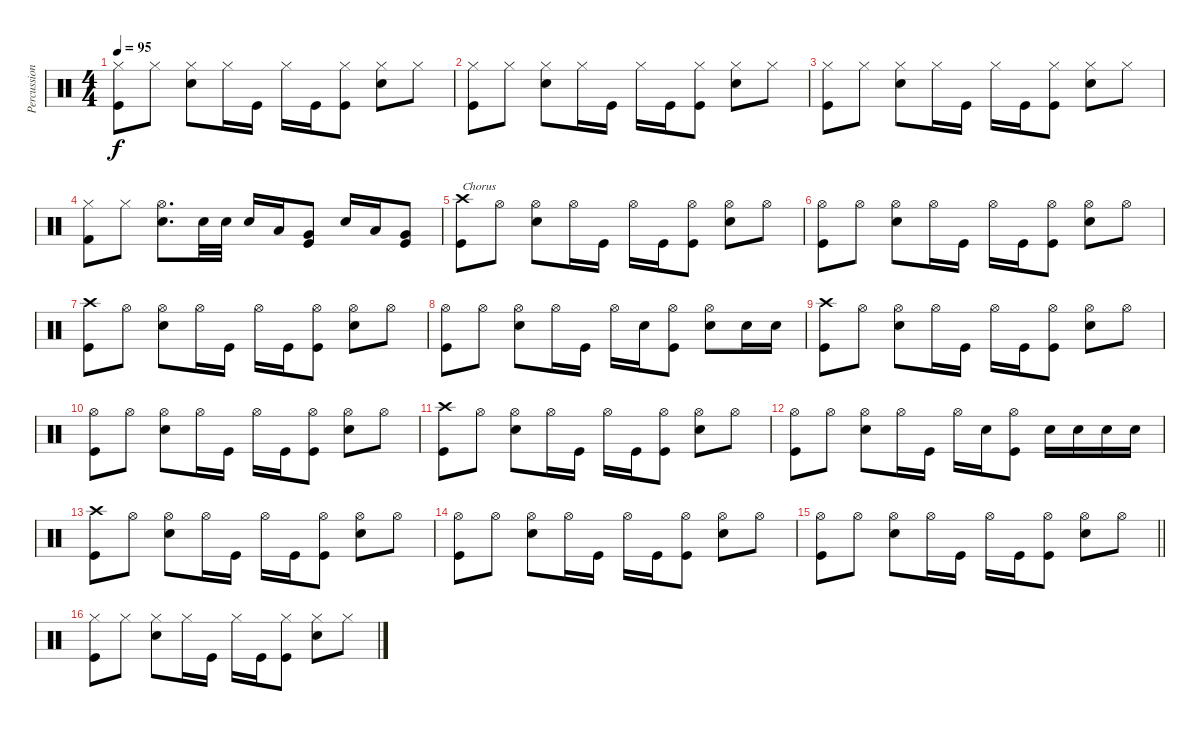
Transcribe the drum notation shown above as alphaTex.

\track ("Percussion" "Percussion") {instrument percussion}
\staff {score}
\articulation defaults
\ts (4 4)
\tempo 95
\clef neutral
\ks c
("Hi-Hat (closed)" "Kick (hit)").8{dy f} "Hi-Hat (closed)".8 ("Hi-Hat (closed)" "Snare (hit) 2").8 "Hi-Hat (closed)".16 "Kick (hit)".16 "Hi-Hat (closed)".16 "Kick (hit)".16 ("Hi-Hat (closed)" "Kick (hit)").8 ("Hi-Hat (closed)" "Snare (hit) 2").8 "Hi-Hat (closed)".8 |
("Hi-Hat (closed)" "Kick (hit)").8 "Hi-Hat (closed)".8 ("Hi-Hat (closed)" "Snare (hit) 2").8 "Hi-Hat (closed)".16 "Kick (hit)".16 "Hi-Hat (closed)".16 "Kick (hit)".16 ("Hi-Hat (closed)" "Kick (hit)").8 ("Hi-Hat (closed)" "Snare (hit) 2").8 "Hi-Hat (closed)".8 |
("Hi-Hat (closed)" "Kick (hit)").8 "Hi-Hat (closed)".8 ("Hi-Hat (closed)" "Snare (hit) 2").8 "Hi-Hat (closed)".16 "Kick (hit)".16 "Hi-Hat (closed)".16 "Kick (hit)".16 ("Hi-Hat (closed)" "Kick (hit)").8 ("Hi-Hat (closed)" "Snare (hit) 2").8 "Hi-Hat (closed)".8 |
("Hi-Hat (closed)" "Kick (hit) 2").8 "Hi-Hat (closed)".8 ("Hi-Hat (open)" "Electric Snare (hit)").8{d} "Electric Snare (hit)".32 "Electric Snare (hit)".32 "Electric Snare (hit)".16 "Low Tom (hit)".16 ("Very Low Tom (hit)" "Kick (hit)").8 "Electric Snare (hit)".16 "Low Tom (hit)".16 ("Very Low Tom (hit)" "Kick (hit)").8 |
("Crash high (hit)" "Kick (hit)").8{txt "Chorus"} "Hi-Hat (open)".8 ("Hi-Hat (open)" "Snare (hit) 2").8 "Hi-Hat (open)".16 "Kick (hit)".16 "Hi-Hat (open)".16 "Kick (hit)".16 ("Hi-Hat (open)" "Kick (hit)").8 ("Hi-Hat (open)" "Snare (hit) 2").8 "Hi-Hat (open)".8 |
("Hi-Hat (open)" "Kick (hit)").8 "Hi-Hat (open)".8 ("Hi-Hat (open)" "Snare (hit) 2").8 "Hi-Hat (open)".16 "Kick (hit)".16 "Hi-Hat (open)".16 "Kick (hit)".16 ("Hi-Hat (open)" "Kick (hit)").8 ("Hi-Hat (open)" "Snare (hit) 2").8 "Hi-Hat (open)".8 |
("Crash high (hit)" "Kick (hit)").8 "Hi-Hat (open)".8 ("Hi-Hat (open)" "Snare (hit) 2").8 "Hi-Hat (open)".16 "Kick (hit)".16 "Hi-Hat (open)".16 "Kick (hit)".16 ("Hi-Hat (open)" "Kick (hit)").8 ("Hi-Hat (open)" "Snare (hit) 2").8 "Hi-Hat (open)".8 |
("Hi-Hat (open)" "Kick (hit)").8 "Hi-Hat (open)".8 ("Hi-Hat (open)" "Snare (hit) 2").8 "Hi-Hat (open)".16 "Kick (hit)".16 "Hi-Hat (open)".16 "Snare (hit) 2".16 ("Hi-Hat (open)" "Kick (hit)").8 ("Hi-Hat (open)" "Snare (hit) 2").8 "Snare (hit) 2".16 "Snare (hit) 2".16 |
("Crash high (hit)" "Kick (hit)").8 "Hi-Hat (open)".8 ("Hi-Hat (open)" "Snare (hit) 2").8 "Hi-Hat (open)".16 "Kick (hit)".16 "Hi-Hat (open)".16 "Kick (hit)".16 ("Hi-Hat (open)" "Kick (hit)").8 ("Hi-Hat (open)" "Snare (hit) 2").8 "Hi-Hat (open)".8 |
("Hi-Hat (open)" "Kick (hit)").8 "Hi-Hat (open)".8 ("Hi-Hat (open)" "Snare (hit) 2").8 "Hi-Hat (open)".16 "Kick (hit)".16 "Hi-Hat (open)".16 "Kick (hit)".16 ("Hi-Hat (open)" "Kick (hit)").8 ("Hi-Hat (open)" "Snare (hit) 2").8 "Hi-Hat (open)".8 |
("Crash high (hit)" "Kick (hit)").8 "Hi-Hat (open)".8 ("Hi-Hat (open)" "Snare (hit) 2").8 "Hi-Hat (open)".16 "Kick (hit)".16 "Hi-Hat (open)".16 "Kick (hit)".16 ("Hi-Hat (open)" "Kick (hit)").8 ("Hi-Hat (open)" "Snare (hit) 2").8 "Hi-Hat (open)".8 |
("Hi-Hat (open)" "Kick (hit)").8 "Hi-Hat (open)".8 ("Hi-Hat (open)" "Snare (hit) 2").8 "Hi-Hat (open)".16 "Kick (hit)".16 "Hi-Hat (open)".16 "Snare (hit) 2".16 ("Hi-Hat (open)" "Kick (hit)").8 "Snare (hit) 2".16 "Snare (hit) 2".16 "Snare (hit) 2".16 "Snare (hit) 2".16 |
("Crash high (hit)" "Kick (hit)").8 "Hi-Hat (open)".8 ("Hi-Hat (open)" "Snare (hit) 2").8 "Hi-Hat (open)".16 "Kick (hit)".16 "Hi-Hat (open)".16 "Kick (hit)".16 ("Hi-Hat (open)" "Kick (hit)").8 ("Hi-Hat (open)" "Snare (hit) 2").8 "Hi-Hat (open)".8 |
("Hi-Hat (open)" "Kick (hit)").8 "Hi-Hat (open)".8 ("Hi-Hat (open)" "Snare (hit) 2").8 "Hi-Hat (open)".16 "Kick (hit)".16 "Hi-Hat (open)".16 "Kick (hit)".16 ("Hi-Hat (open)" "Kick (hit)").8 ("Hi-Hat (open)" "Snare (hit) 2").8 "Hi-Hat (open)".8 |
\barLineRight lightlight
("Hi-Hat (open)" "Kick (hit)").8 "Hi-Hat (open)".8 ("Hi-Hat (open)" "Snare (hit) 2").8 "Hi-Hat (open)".16 "Kick (hit)".16 "Hi-Hat (open)".16 "Kick (hit)".16 ("Hi-Hat (open)" "Kick (hit)").8 ("Hi-Hat (open)" "Snare (hit) 2").8 "Hi-Hat (open)".8 |
("Hi-Hat (closed)" "Kick (hit)").8 "Hi-Hat (closed)".8 ("Hi-Hat (closed)" "Snare (hit) 2").8 "Hi-Hat (closed)".16 "Kick (hit)".16 "Hi-Hat (closed)".16 "Kick (hit)".16 ("Hi-Hat (closed)" "Kick (hit)").8 ("Hi-Hat (closed)" "Snare (hit) 2").8 "Hi-Hat (closed)".8
